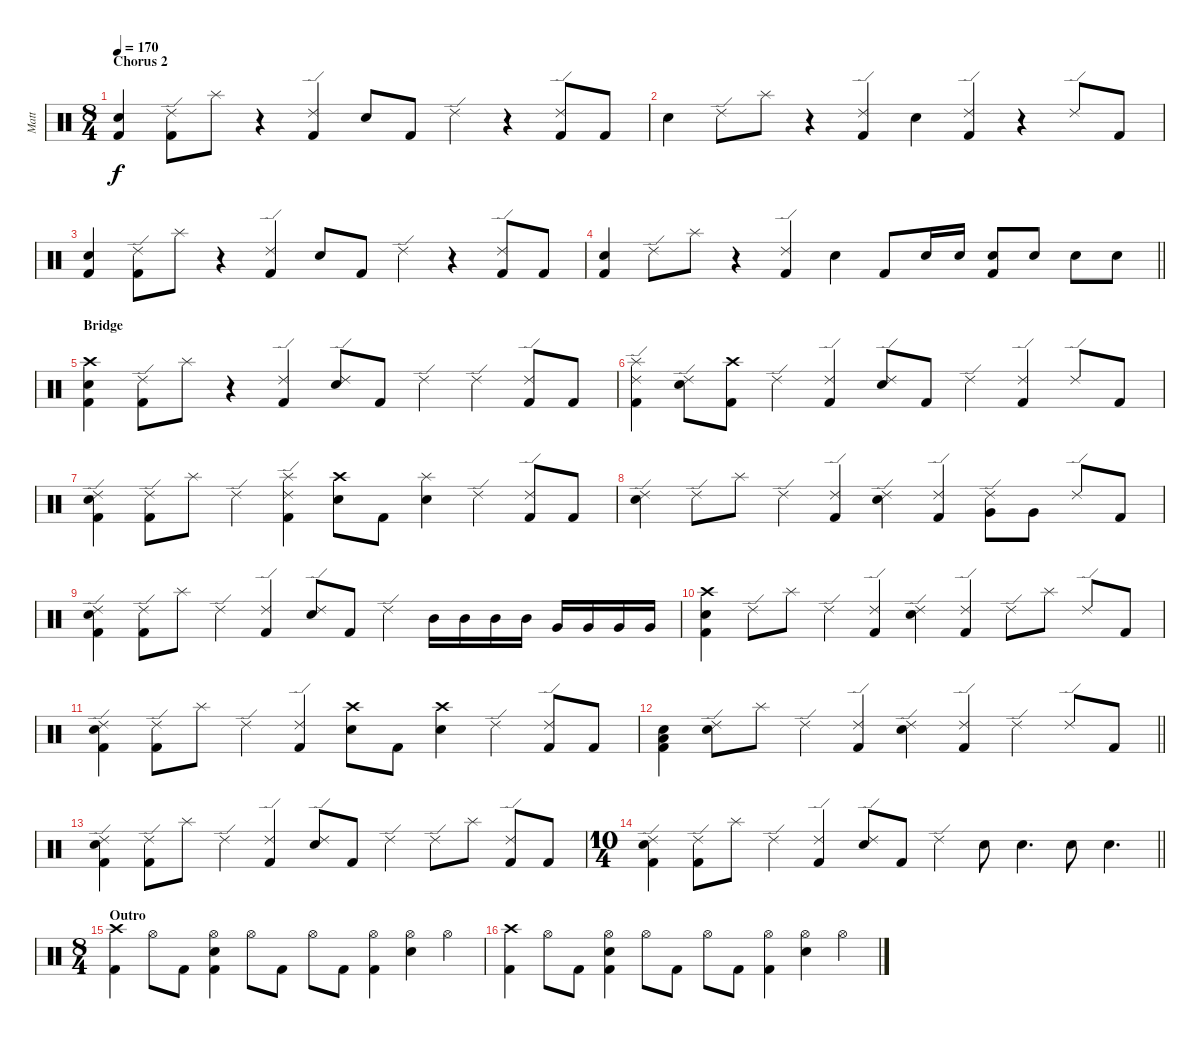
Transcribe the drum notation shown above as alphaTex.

\track ("Matt" "Matt") {instrument percussion}
\staff
\articulation defaults
\ts (8 4)
\section ("" "Chorus 2")
\tempo 170
\clef neutral
\ks c
("Snare (hit) 2" "Kick (hit) 2").4{dy f} ("Ride (edge) 2" "Kick (hit) 2").8 "Splash (hit)".8 r.4 ("Ride (edge) 2" "Kick (hit) 2").4 "Snare (hit) 2".8 "Kick (hit) 2".8 "Ride (edge) 2".4 r.4 ("Ride (edge) 2" "Kick (hit) 2").8 "Kick (hit) 2".8 |
"Snare (hit) 2".4 "Ride (edge) 2".8 "Splash (hit)".8 r.4 ("Ride (edge) 2" "Kick (hit) 2").4 "Snare (hit) 2".4 ("Ride (edge) 2" "Kick (hit) 2").4 r.4 "Ride (edge) 2".8 "Kick (hit) 2".8 |
("Snare (hit) 2" "Kick (hit) 2").4 ("Ride (edge) 2" "Kick (hit) 2").8 "Splash (hit)".8 r.4 ("Ride (edge) 2" "Kick (hit) 2").4 "Snare (hit) 2".8 "Kick (hit) 2".8 "Ride (edge) 2".4 r.4 ("Ride (edge) 2" "Kick (hit) 2").8 "Kick (hit) 2".8 |
\barLineRight lightlight
("Snare (hit) 2" "Kick (hit) 2").4 "Ride (edge) 2".8 "Splash (hit)".8 r.4 ("Ride (edge) 2" "Kick (hit) 2").4 "Snare (hit) 2".4 "Kick (hit) 2".8 "Snare (hit) 2".16 "Snare (hit) 2".16 ("Snare (hit) 2" "Kick (hit) 2").8 "Snare (hit) 2".8 "Snare (hit) 2".8 "Snare (hit) 2".8 |
\section ("" "Bridge")
("Crash high (hit)" "Snare (hit) 2" "Kick (hit) 2").4 ("Ride (edge) 2" "Kick (hit) 2").8 "Splash (hit)".8 r.4 ("Ride (edge) 2" "Kick (hit) 2").4 ("Snare (hit) 2" "Ride (edge) 2").8 "Kick (hit) 2".8 "Ride (edge) 2".4 "Ride (edge) 2".4 ("Ride (edge) 2" "Kick (hit) 2").8 "Kick (hit) 2".8 |
("Splash (hit)" "Ride (edge) 2" "Kick (hit) 2").4 ("Snare (hit) 2" "Ride (edge) 2").8 ("Crash high (hit)" "Kick (hit) 2").8 "Ride (edge) 2".4 ("Ride (edge) 2" "Kick (hit) 2").4 ("Snare (hit) 2" "Ride (edge) 2").8 "Kick (hit) 2".8 "Ride (edge) 2".4 ("Ride (edge) 2" "Kick (hit) 2").4 "Ride (edge) 2".8 "Kick (hit) 2".8 |
("Snare (hit) 2" "Ride (edge) 2" "Kick (hit) 2").4 ("Ride (edge) 2" "Kick (hit) 2").8 "Splash (hit)".8 "Ride (edge) 2".4 ("Splash (hit)" "Ride (edge) 2" "Kick (hit) 2").4 ("Crash high (hit)" "Snare (hit) 2").8 "Kick (hit) 2".8 ("Splash (hit)" "Snare (hit) 2").4 "Ride (edge) 2".4 ("Ride (edge) 2" "Kick (hit) 2").8 "Kick (hit) 2".8 |
("Snare (hit) 2" "Ride (edge) 2").4 "Ride (edge) 2".8 "Splash (hit)".8 "Ride (edge) 2".4 ("Ride (edge) 2" "Kick (hit) 2").4 ("Snare (hit) 2" "Ride (edge) 2").4 ("Ride (edge) 2" "Kick (hit) 2").4 ("Very Low Tom (hit)" "Ride (edge) 2").8 "Very Low Tom (hit)".8 "Ride (edge) 2".8 "Kick (hit) 2".8 |
("Snare (hit) 2" "Ride (edge) 2" "Kick (hit) 2").4 ("Ride (edge) 2" "Kick (hit) 2").8 "Splash (hit)".8 "Ride (edge) 2".4 ("Ride (edge) 2" "Kick (hit) 2").4 ("Snare (hit) 2" "Ride (edge) 2").8 "Kick (hit) 2".8 "Ride (edge) 2".4 "Mid Tom (hit)".16 "Mid Tom (hit)".16 "Mid Tom (hit)".16 "Mid Tom (hit)".16 "Very Low Tom (hit)".16 "Very Low Tom (hit)".16 "Very Low Tom (hit)".16 "Very Low Tom (hit)".16 |
("Crash high (hit)" "Snare (hit) 2" "Kick (hit) 2").4 "Ride (edge) 2".8 "Splash (hit)".8 "Ride (edge) 2".4 ("Ride (edge) 2" "Kick (hit) 2").4 ("Snare (hit) 2" "Ride (edge) 2").4 ("Ride (edge) 2" "Kick (hit) 2").4 "Ride (edge) 2".8 "Splash (hit)".8 "Ride (edge) 2".8 "Kick (hit) 2".8 |
("Snare (hit) 2" "Ride (edge) 2" "Kick (hit) 2").4 ("Ride (edge) 2" "Kick (hit) 2").8 "Splash (hit)".8 "Ride (edge) 2".4 ("Ride (edge) 2" "Kick (hit) 2").4 ("Crash high (hit)" "Snare (hit) 2").8 "Kick (hit) 2".8 ("Crash high (hit)" "Snare (hit) 2").4 "Ride (edge) 2".4 ("Ride (edge) 2" "Kick (hit) 2").8 "Kick (hit) 2".8 |
\barLineRight lightlight
("Low Floor Tom (hit)" "Snare (hit) 2" "Kick (hit) 2").4 ("Snare (hit) 2" "Ride (edge) 2").8 "Splash (hit)".8 "Ride (edge) 2".4 ("Ride (edge) 2" "Kick (hit) 2").4 ("Snare (hit) 2" "Ride (edge) 2").4 ("Ride (edge) 2" "Kick (hit) 2").4 "Ride (edge) 2".4 "Ride (edge) 2".8 "Kick (hit) 2".8 |
("Snare (hit) 2" "Ride (edge) 2" "Kick (hit) 2").4 ("Ride (edge) 2" "Kick (hit) 2").8 "Splash (hit)".8 "Ride (edge) 2".4 ("Ride (edge) 2" "Kick (hit) 2").4 ("Snare (hit) 2" "Ride (edge) 2").8 "Kick (hit) 2".8 "Ride (edge) 2".4 "Ride (edge) 2".8 "Splash (hit)".8 ("Ride (edge) 2" "Kick (hit) 2").8 "Kick (hit) 2".8 |
\ts (10 4)
\barLineRight lightlight
("Snare (hit) 2" "Ride (edge) 2" "Kick (hit) 2").4 ("Ride (edge) 2" "Kick (hit) 2").8 "Splash (hit)".8 "Ride (edge) 2".4 ("Ride (edge) 2" "Kick (hit) 2").4 ("Snare (hit) 2" "Ride (edge) 2").8 "Kick (hit) 2".8 "Ride (edge) 2".4 "Snare (hit) 2".8 "Snare (hit) 2".4{d} "Snare (hit) 2".8 "Snare (hit) 2".4{d} |
\ts (8 4)
\section ("" "Outro")
("Crash high (hit)" "Kick (hit) 2").4 "Hi-Hat (open)".8 "Kick (hit) 2".8 ("Snare (hit) 2" "Hi-Hat (open)" "Kick (hit) 2").4 "Hi-Hat (open)".8 "Kick (hit) 2".8 "Hi-Hat (open)".8 "Kick (hit) 2".8 ("Hi-Hat (open)" "Kick (hit) 2").4 ("Snare (hit) 2" "Hi-Hat (open)").4 "Hi-Hat (open)".4 |
("Crash high (hit)" "Kick (hit) 2").4 "Hi-Hat (open)".8 "Kick (hit) 2".8 ("Snare (hit) 2" "Hi-Hat (open)" "Kick (hit) 2").4 "Hi-Hat (open)".8 "Kick (hit) 2".8 "Hi-Hat (open)".8 "Kick (hit) 2".8 ("Hi-Hat (open)" "Kick (hit) 2").4 ("Snare (hit) 2" "Hi-Hat (open)").4 "Hi-Hat (open)".4
